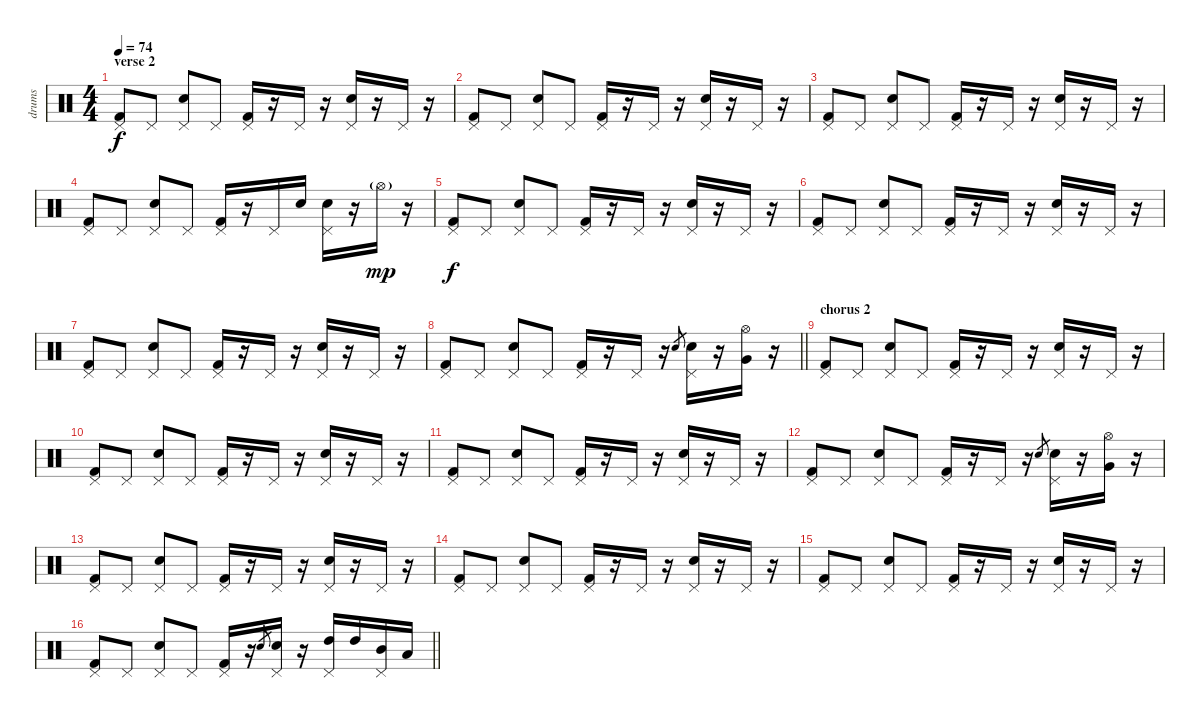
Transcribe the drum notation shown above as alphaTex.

\track ("drums" "drums") {instrument percussion}
\staff {score}
\articulation defaults
\ts (4 4)
\section ("" "verse 2")
\tempo 74
\clef neutral
\ks c
("Kick (hit) 2" "Pedal Hi-Hat (hit)").8{dy f} "Pedal Hi-Hat (hit)".8 ("Electric Snare (hit)" "Pedal Hi-Hat (hit)").8 "Pedal Hi-Hat (hit)".8 ("Kick (hit) 2" "Pedal Hi-Hat (hit)").16 r.16 "Pedal Hi-Hat (hit)".16 r.16 ("Electric Snare (hit)" "Pedal Hi-Hat (hit)").16 r.16 "Pedal Hi-Hat (hit)".16 r.16 |
("Kick (hit) 2" "Pedal Hi-Hat (hit)").8 "Pedal Hi-Hat (hit)".8 ("Electric Snare (hit)" "Pedal Hi-Hat (hit)").8 "Pedal Hi-Hat (hit)".8 ("Kick (hit) 2" "Pedal Hi-Hat (hit)").16 r.16 "Pedal Hi-Hat (hit)".16 r.16 ("Electric Snare (hit)" "Pedal Hi-Hat (hit)").16 r.16 "Pedal Hi-Hat (hit)".16 r.16 |
("Kick (hit) 2" "Pedal Hi-Hat (hit)").8 "Pedal Hi-Hat (hit)".8 ("Electric Snare (hit)" "Pedal Hi-Hat (hit)").8 "Pedal Hi-Hat (hit)".8 ("Kick (hit) 2" "Pedal Hi-Hat (hit)").16 r.16 "Pedal Hi-Hat (hit)".16 r.16 ("Electric Snare (hit)" "Pedal Hi-Hat (hit)").16 r.16 "Pedal Hi-Hat (hit)".16 r.16 |
("Kick (hit) 2" "Pedal Hi-Hat (hit)").8 "Pedal Hi-Hat (hit)".8 ("Electric Snare (hit)" "Pedal Hi-Hat (hit)").8 "Pedal Hi-Hat (hit)".8 ("Kick (hit) 2" "Pedal Hi-Hat (hit)").16 r.16 "Pedal Hi-Hat (hit)".16 "Electric Snare (hit)".16 ("Electric Snare (hit)" "Pedal Hi-Hat (hit)").16 r.16 "Hi-Hat (open)"{g}.16{dy mp} r.16 |
("Kick (hit) 2" "Pedal Hi-Hat (hit)").8{dy f} "Pedal Hi-Hat (hit)".8 ("Electric Snare (hit)" "Pedal Hi-Hat (hit)").8 "Pedal Hi-Hat (hit)".8 ("Kick (hit) 2" "Pedal Hi-Hat (hit)").16 r.16 "Pedal Hi-Hat (hit)".16 r.16 ("Electric Snare (hit)" "Pedal Hi-Hat (hit)").16 r.16 "Pedal Hi-Hat (hit)".16 r.16 |
("Kick (hit) 2" "Pedal Hi-Hat (hit)").8 "Pedal Hi-Hat (hit)".8 ("Electric Snare (hit)" "Pedal Hi-Hat (hit)").8 "Pedal Hi-Hat (hit)".8 ("Kick (hit) 2" "Pedal Hi-Hat (hit)").16 r.16 "Pedal Hi-Hat (hit)".16 r.16 ("Electric Snare (hit)" "Pedal Hi-Hat (hit)").16 r.16 "Pedal Hi-Hat (hit)".16 r.16 |
("Kick (hit) 2" "Pedal Hi-Hat (hit)").8 "Pedal Hi-Hat (hit)".8 ("Electric Snare (hit)" "Pedal Hi-Hat (hit)").8 "Pedal Hi-Hat (hit)".8 ("Kick (hit) 2" "Pedal Hi-Hat (hit)").16 r.16 "Pedal Hi-Hat (hit)".16 r.16 ("Electric Snare (hit)" "Pedal Hi-Hat (hit)").16 r.16 "Pedal Hi-Hat (hit)".16 r.16 |
\barLineRight lightlight
("Kick (hit) 2" "Pedal Hi-Hat (hit)").8 "Pedal Hi-Hat (hit)".8 ("Electric Snare (hit)" "Pedal Hi-Hat (hit)").8 "Pedal Hi-Hat (hit)".8 ("Kick (hit) 2" "Pedal Hi-Hat (hit)").16 r.16 "Pedal Hi-Hat (hit)".16 r.16 "Electric Snare (hit)".8{gr} ("Electric Snare (hit)" "Pedal Hi-Hat (hit)").16 r.16 ("Very Low Tom (hit)" "Hi-Hat (open)").16 r.16 |
\section ("" "chorus 2")
("Kick (hit) 2" "Pedal Hi-Hat (hit)").8 "Pedal Hi-Hat (hit)".8 ("Electric Snare (hit)" "Pedal Hi-Hat (hit)").8 "Pedal Hi-Hat (hit)".8 ("Kick (hit) 2" "Pedal Hi-Hat (hit)").16 r.16 "Pedal Hi-Hat (hit)".16 r.16 ("Electric Snare (hit)" "Pedal Hi-Hat (hit)").16 r.16 "Pedal Hi-Hat (hit)".16 r.16 |
("Kick (hit) 2" "Pedal Hi-Hat (hit)").8 "Pedal Hi-Hat (hit)".8 ("Electric Snare (hit)" "Pedal Hi-Hat (hit)").8 "Pedal Hi-Hat (hit)".8 ("Kick (hit) 2" "Pedal Hi-Hat (hit)").16 r.16 "Pedal Hi-Hat (hit)".16 r.16 ("Electric Snare (hit)" "Pedal Hi-Hat (hit)").16 r.16 "Pedal Hi-Hat (hit)".16 r.16 |
("Kick (hit) 2" "Pedal Hi-Hat (hit)").8 "Pedal Hi-Hat (hit)".8 ("Electric Snare (hit)" "Pedal Hi-Hat (hit)").8 "Pedal Hi-Hat (hit)".8 ("Kick (hit) 2" "Pedal Hi-Hat (hit)").16 r.16 "Pedal Hi-Hat (hit)".16 r.16 ("Electric Snare (hit)" "Pedal Hi-Hat (hit)").16 r.16 "Pedal Hi-Hat (hit)".16 r.16 |
("Kick (hit) 2" "Pedal Hi-Hat (hit)").8 "Pedal Hi-Hat (hit)".8 ("Electric Snare (hit)" "Pedal Hi-Hat (hit)").8 "Pedal Hi-Hat (hit)".8 ("Kick (hit) 2" "Pedal Hi-Hat (hit)").16 r.16 "Pedal Hi-Hat (hit)".16 r.16 "Electric Snare (hit)".8{gr} ("Electric Snare (hit)" "Pedal Hi-Hat (hit)").16 r.16 ("Very Low Tom (hit)" "Hi-Hat (open)").16 r.16 |
("Kick (hit) 2" "Pedal Hi-Hat (hit)").8 "Pedal Hi-Hat (hit)".8 ("Electric Snare (hit)" "Pedal Hi-Hat (hit)").8 "Pedal Hi-Hat (hit)".8 ("Kick (hit) 2" "Pedal Hi-Hat (hit)").16 r.16 "Pedal Hi-Hat (hit)".16 r.16 ("Electric Snare (hit)" "Pedal Hi-Hat (hit)").16 r.16 "Pedal Hi-Hat (hit)".16 r.16 |
("Kick (hit) 2" "Pedal Hi-Hat (hit)").8 "Pedal Hi-Hat (hit)".8 ("Electric Snare (hit)" "Pedal Hi-Hat (hit)").8 "Pedal Hi-Hat (hit)".8 ("Kick (hit) 2" "Pedal Hi-Hat (hit)").16 r.16 "Pedal Hi-Hat (hit)".16 r.16 ("Electric Snare (hit)" "Pedal Hi-Hat (hit)").16 r.16 "Pedal Hi-Hat (hit)".16 r.16 |
("Kick (hit) 2" "Pedal Hi-Hat (hit)").8 "Pedal Hi-Hat (hit)".8 ("Electric Snare (hit)" "Pedal Hi-Hat (hit)").8 "Pedal Hi-Hat (hit)".8 ("Kick (hit) 2" "Pedal Hi-Hat (hit)").16 r.16 "Pedal Hi-Hat (hit)".16 r.16 ("Electric Snare (hit)" "Pedal Hi-Hat (hit)").16 r.16 "Pedal Hi-Hat (hit)".16 r.16 |
\barLineRight lightlight
("Kick (hit) 2" "Pedal Hi-Hat (hit)").8 "Pedal Hi-Hat (hit)".8 ("Electric Snare (hit)" "Pedal Hi-Hat (hit)").8 "Pedal Hi-Hat (hit)".8 ("Kick (hit) 2" "Pedal Hi-Hat (hit)").16 r.16 "Electric Snare (hit)".8{gr} ("Electric Snare (hit)" "Pedal Hi-Hat (hit)").16 r.16 ("High Tom (hit)" "Pedal Hi-Hat (hit)").16 "High Tom (hit)".16 ("Mid Tom (hit)" "Pedal Hi-Hat (hit)").16 "Low Tom (hit)".16
